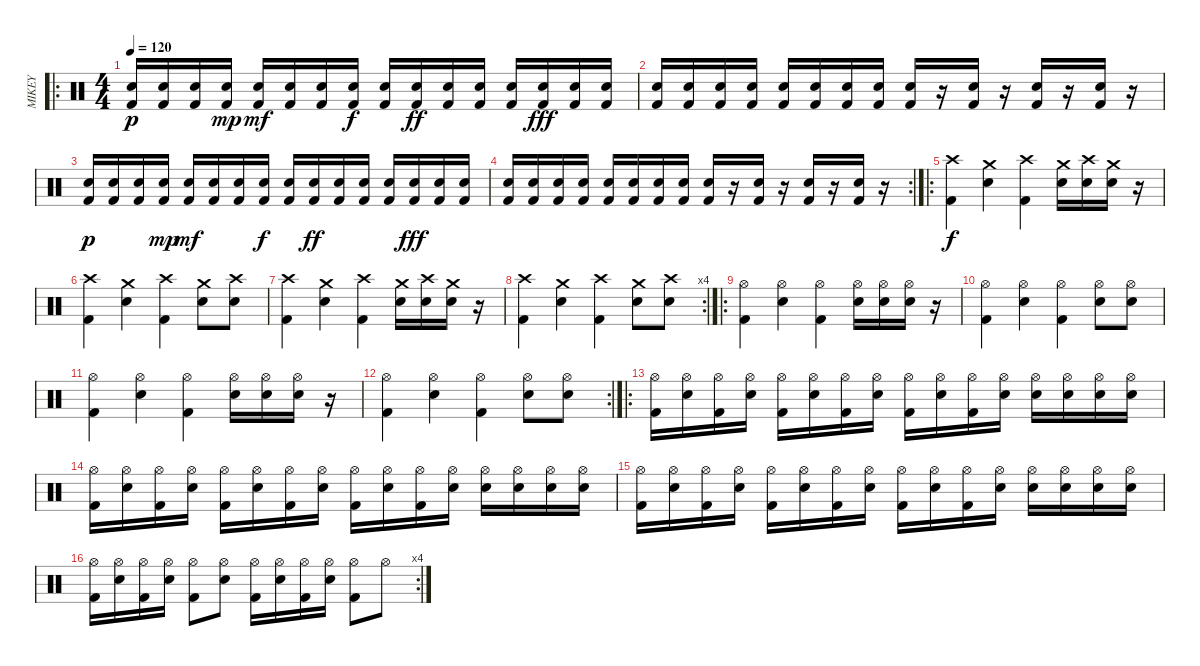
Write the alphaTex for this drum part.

\track ("MIKEY" "MIKEY") {instrument percussion}
\staff {score}
\articulation defaults
\ro
\ts (4 4)
\tempo 120
\clef neutral
\ks c
("Kick (hit) 2" "Electric Snare (hit)").16{dy p} ("Kick (hit) 2" "Electric Snare (hit)").16 ("Kick (hit) 2" "Electric Snare (hit)").16 ("Kick (hit) 2" "Electric Snare (hit)").16{dy mp} ("Kick (hit) 2" "Electric Snare (hit)").16{dy mf} ("Kick (hit) 2" "Electric Snare (hit)").16 ("Kick (hit) 2" "Electric Snare (hit)").16 ("Kick (hit) 2" "Electric Snare (hit)").16{dy f} ("Kick (hit) 2" "Electric Snare (hit)").16 ("Kick (hit) 2" "Electric Snare (hit)").16{dy ff} ("Kick (hit) 2" "Electric Snare (hit)").16 ("Kick (hit) 2" "Electric Snare (hit)").16 ("Kick (hit) 2" "Electric Snare (hit)").16 ("Kick (hit) 2" "Electric Snare (hit)").16{dy fff} ("Kick (hit) 2" "Electric Snare (hit)").16 ("Kick (hit) 2" "Electric Snare (hit)").16 |
("Kick (hit) 2" "Electric Snare (hit)").16 ("Kick (hit) 2" "Electric Snare (hit)").16 ("Kick (hit) 2" "Electric Snare (hit)").16 ("Kick (hit) 2" "Electric Snare (hit)").16 ("Kick (hit) 2" "Electric Snare (hit)").16 ("Kick (hit) 2" "Electric Snare (hit)").16 ("Kick (hit) 2" "Electric Snare (hit)").16 ("Kick (hit) 2" "Electric Snare (hit)").16 ("Kick (hit) 2" "Electric Snare (hit)").16 r.16 ("Kick (hit) 2" "Electric Snare (hit)").16 r.16 ("Kick (hit) 2" "Electric Snare (hit)").16 r.16 ("Kick (hit) 2" "Electric Snare (hit)").16 r.16 |
("Kick (hit) 2" "Electric Snare (hit)").16{dy p} ("Kick (hit) 2" "Electric Snare (hit)").16 ("Kick (hit) 2" "Electric Snare (hit)").16 ("Kick (hit) 2" "Electric Snare (hit)").16{dy mp} ("Kick (hit) 2" "Electric Snare (hit)").16{dy mf} ("Kick (hit) 2" "Electric Snare (hit)").16 ("Kick (hit) 2" "Electric Snare (hit)").16 ("Kick (hit) 2" "Electric Snare (hit)").16{dy f} ("Kick (hit) 2" "Electric Snare (hit)").16 ("Kick (hit) 2" "Electric Snare (hit)").16{dy ff} ("Kick (hit) 2" "Electric Snare (hit)").16 ("Kick (hit) 2" "Electric Snare (hit)").16 ("Kick (hit) 2" "Electric Snare (hit)").16 ("Kick (hit) 2" "Electric Snare (hit)").16{dy fff} ("Kick (hit) 2" "Electric Snare (hit)").16 ("Kick (hit) 2" "Electric Snare (hit)").16 |
\rc 2
("Kick (hit) 2" "Electric Snare (hit)").16 ("Kick (hit) 2" "Electric Snare (hit)").16 ("Kick (hit) 2" "Electric Snare (hit)").16 ("Kick (hit) 2" "Electric Snare (hit)").16 ("Kick (hit) 2" "Electric Snare (hit)").16 ("Kick (hit) 2" "Electric Snare (hit)").16 ("Kick (hit) 2" "Electric Snare (hit)").16 ("Kick (hit) 2" "Electric Snare (hit)").16 ("Kick (hit) 2" "Electric Snare (hit)").16 r.16 ("Kick (hit) 2" "Electric Snare (hit)").16 r.16 ("Kick (hit) 2" "Electric Snare (hit)").16 r.16 ("Kick (hit) 2" "Electric Snare (hit)").16 r.16 |
\ro
("Crash high (hit)" "Kick (hit) 2").4{dy f} ("Crash medium (hit)" "Electric Snare (hit)").4 ("Crash high (hit)" "Kick (hit) 2").4 ("Crash medium (hit)" "Electric Snare (hit)").16 ("Crash high (hit)" "Electric Snare (hit)").16 ("Crash medium (hit)" "Electric Snare (hit)").16 r.16 |
("Crash high (hit)" "Kick (hit) 2").4 ("Crash medium (hit)" "Electric Snare (hit)").4 ("Crash high (hit)" "Kick (hit) 2").4 ("Crash medium (hit)" "Electric Snare (hit)").8 ("Crash high (hit)" "Electric Snare (hit)").8 |
("Crash high (hit)" "Kick (hit) 2").4 ("Crash medium (hit)" "Electric Snare (hit)").4 ("Crash high (hit)" "Kick (hit) 2").4 ("Crash medium (hit)" "Electric Snare (hit)").16 ("Crash high (hit)" "Electric Snare (hit)").16 ("Crash medium (hit)" "Electric Snare (hit)").16 r.16 |
\rc 4
("Crash high (hit)" "Kick (hit) 2").4 ("Crash medium (hit)" "Electric Snare (hit)").4 ("Crash high (hit)" "Kick (hit) 2").4 ("Crash medium (hit)" "Electric Snare (hit)").8 ("Crash high (hit)" "Electric Snare (hit)").8 |
\ro
("Hi-Hat (open)" "Kick (hit) 2").4 ("Hi-Hat (open)" "Electric Snare (hit)").4 ("Hi-Hat (open)" "Kick (hit) 2").4 ("Hi-Hat (open)" "Electric Snare (hit)").16 ("Hi-Hat (open)" "Electric Snare (hit)").16 ("Hi-Hat (open)" "Electric Snare (hit)").16 r.16 |
("Hi-Hat (open)" "Kick (hit) 2").4 ("Hi-Hat (open)" "Electric Snare (hit)").4 ("Hi-Hat (open)" "Kick (hit) 2").4 ("Hi-Hat (open)" "Electric Snare (hit)").8 ("Hi-Hat (open)" "Electric Snare (hit)").8 |
("Hi-Hat (open)" "Kick (hit) 2").4 ("Hi-Hat (open)" "Electric Snare (hit)").4 ("Hi-Hat (open)" "Kick (hit) 2").4 ("Hi-Hat (open)" "Electric Snare (hit)").16 ("Hi-Hat (open)" "Electric Snare (hit)").16 ("Hi-Hat (open)" "Electric Snare (hit)").16 r.16 |
\rc 2
("Hi-Hat (open)" "Kick (hit) 2").4 ("Hi-Hat (open)" "Electric Snare (hit)").4 ("Hi-Hat (open)" "Kick (hit) 2").4 ("Hi-Hat (open)" "Electric Snare (hit)").8 ("Hi-Hat (open)" "Electric Snare (hit)").8 |
\ro
("Hi-Hat (open)" "Kick (hit) 2").16 ("Hi-Hat (open)" "Electric Snare (hit)").16 ("Hi-Hat (open)" "Kick (hit) 2").16 ("Hi-Hat (open)" "Electric Snare (hit)").16 ("Hi-Hat (open)" "Kick (hit) 2").16 ("Hi-Hat (open)" "Electric Snare (hit)").16 ("Hi-Hat (open)" "Kick (hit) 2").16 ("Hi-Hat (open)" "Electric Snare (hit)").16 ("Hi-Hat (open)" "Kick (hit) 2").16 ("Hi-Hat (open)" "Electric Snare (hit)").16 ("Hi-Hat (open)" "Kick (hit) 2").16 ("Hi-Hat (open)" "Electric Snare (hit)").16 ("Hi-Hat (open)" "Electric Snare (hit)").16 ("Hi-Hat (open)" "Electric Snare (hit)").16 ("Hi-Hat (open)" "Electric Snare (hit)").16 ("Hi-Hat (open)" "Electric Snare (hit)").16 |
("Hi-Hat (open)" "Kick (hit) 2").16 ("Hi-Hat (open)" "Electric Snare (hit)").16 ("Hi-Hat (open)" "Kick (hit) 2").16 ("Hi-Hat (open)" "Electric Snare (hit)").16 ("Hi-Hat (open)" "Kick (hit) 2").16 ("Hi-Hat (open)" "Electric Snare (hit)").16 ("Hi-Hat (open)" "Kick (hit) 2").16 ("Hi-Hat (open)" "Electric Snare (hit)").16 ("Hi-Hat (open)" "Kick (hit) 2").16 ("Hi-Hat (open)" "Electric Snare (hit)").16 ("Hi-Hat (open)" "Kick (hit) 2").16 ("Hi-Hat (open)" "Electric Snare (hit)").16 ("Hi-Hat (open)" "Electric Snare (hit)").16 ("Hi-Hat (open)" "Electric Snare (hit)").16 ("Hi-Hat (open)" "Electric Snare (hit)").16 ("Hi-Hat (open)" "Electric Snare (hit)").16 |
("Hi-Hat (open)" "Kick (hit) 2").16 ("Hi-Hat (open)" "Electric Snare (hit)").16 ("Hi-Hat (open)" "Kick (hit) 2").16 ("Hi-Hat (open)" "Electric Snare (hit)").16 ("Hi-Hat (open)" "Kick (hit) 2").16 ("Hi-Hat (open)" "Electric Snare (hit)").16 ("Hi-Hat (open)" "Kick (hit) 2").16 ("Hi-Hat (open)" "Electric Snare (hit)").16 ("Hi-Hat (open)" "Kick (hit) 2").16 ("Hi-Hat (open)" "Electric Snare (hit)").16 ("Hi-Hat (open)" "Kick (hit) 2").16 ("Hi-Hat (open)" "Electric Snare (hit)").16 ("Hi-Hat (open)" "Electric Snare (hit)").16 ("Hi-Hat (open)" "Electric Snare (hit)").16 ("Hi-Hat (open)" "Electric Snare (hit)").16 ("Hi-Hat (open)" "Electric Snare (hit)").16 |
\rc 4
("Hi-Hat (open)" "Kick (hit) 2").16 ("Hi-Hat (open)" "Electric Snare (hit)").16 ("Hi-Hat (open)" "Kick (hit) 2").16 ("Hi-Hat (open)" "Electric Snare (hit)").16 ("Hi-Hat (open)" "Kick (hit) 2").8 ("Hi-Hat (open)" "Electric Snare (hit)").8 ("Hi-Hat (open)" "Kick (hit) 2").16 ("Hi-Hat (open)" "Electric Snare (hit)").16 ("Hi-Hat (open)" "Kick (hit) 2").16 ("Hi-Hat (open)" "Electric Snare (hit)").16 ("Hi-Hat (open)" "Kick (hit) 2").8 "Hi-Hat (open)".8
